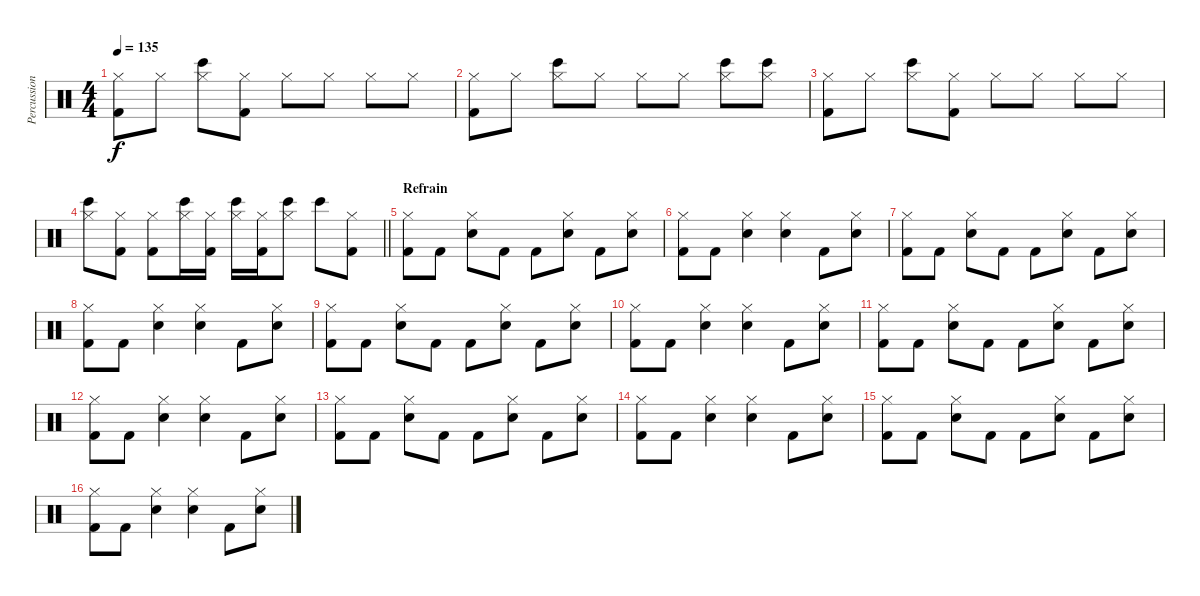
\track ("Percussion" "Percussion") {instrument percussion}
\staff {score}
\articulation defaults
\ts (4 4)
\tempo 135
\clef neutral
\ks c
("Hi-Hat (closed)" "Kick (hit) 2").8{dy f} "Hi-Hat (closed)".8 ("Hi-Hat (closed)" "Bongo High (hit)").8 ("Hi-Hat (closed)" "Kick (hit) 2").8 "Hi-Hat (closed)".8 "Hi-Hat (closed)".8 "Hi-Hat (closed)".8 "Hi-Hat (closed)".8 |
("Hi-Hat (closed)" "Kick (hit) 2").8 "Hi-Hat (closed)".8 ("Hi-Hat (closed)" "Bongo High (hit)").8 "Hi-Hat (closed)".8 "Hi-Hat (closed)".8 "Hi-Hat (closed)".8 ("Hi-Hat (closed)" "Bongo High (hit)").8 ("Hi-Hat (closed)" "Bongo High (hit)").8 |
("Hi-Hat (closed)" "Kick (hit) 2").8 "Hi-Hat (closed)".8 ("Hi-Hat (closed)" "Bongo High (hit)").8 ("Hi-Hat (closed)" "Kick (hit) 2").8 "Hi-Hat (closed)".8 "Hi-Hat (closed)".8 "Hi-Hat (closed)".8 "Hi-Hat (closed)".8 |
\barLineRight lightlight
("Hi-Hat (closed)" "Bongo High (hit)").8 ("Hi-Hat (closed)" "Kick (hit) 2").8 ("Hi-Hat (closed)" "Kick (hit) 2").8 ("Hi-Hat (closed)" "Bongo High (hit)").16 ("Hi-Hat (closed)" "Kick (hit) 2").16 ("Hi-Hat (closed)" "Bongo High (hit)").16 ("Hi-Hat (closed)" "Kick (hit) 2").16 ("Hi-Hat (closed)" "Bongo High (hit)").8 "Bongo High (hit)".8 ("Hi-Hat (closed)" "Kick (hit) 2").8 |
\section ("" "Refrain")
("Hi-Hat (closed)" "Kick (hit) 2").8 "Kick (hit) 2".8 ("Hi-Hat (closed)" "Snare (hit) 2").8 "Kick (hit) 2".8 "Kick (hit) 2".8 ("Hi-Hat (closed)" "Snare (hit) 2").8 "Kick (hit) 2".8 ("Hi-Hat (closed)" "Snare (hit) 2").8 |
("Hi-Hat (closed)" "Kick (hit) 2").8 "Kick (hit) 2".8 ("Hi-Hat (closed)" "Snare (hit) 2").4 ("Hi-Hat (closed)" "Snare (hit) 2").4 "Kick (hit) 2".8 ("Hi-Hat (closed)" "Snare (hit) 2").8 |
("Hi-Hat (closed)" "Kick (hit) 2").8 "Kick (hit) 2".8 ("Hi-Hat (closed)" "Snare (hit) 2").8 "Kick (hit) 2".8 "Kick (hit) 2".8 ("Hi-Hat (closed)" "Snare (hit) 2").8 "Kick (hit) 2".8 ("Hi-Hat (closed)" "Snare (hit) 2").8 |
("Hi-Hat (closed)" "Kick (hit) 2").8 "Kick (hit) 2".8 ("Hi-Hat (closed)" "Snare (hit) 2").4 ("Hi-Hat (closed)" "Snare (hit) 2").4 "Kick (hit) 2".8 ("Hi-Hat (closed)" "Snare (hit) 2").8 |
("Hi-Hat (closed)" "Kick (hit) 2").8 "Kick (hit) 2".8 ("Hi-Hat (closed)" "Snare (hit) 2").8 "Kick (hit) 2".8 "Kick (hit) 2".8 ("Hi-Hat (closed)" "Snare (hit) 2").8 "Kick (hit) 2".8 ("Hi-Hat (closed)" "Snare (hit) 2").8 |
("Hi-Hat (closed)" "Kick (hit) 2").8 "Kick (hit) 2".8 ("Hi-Hat (closed)" "Snare (hit) 2").4 ("Hi-Hat (closed)" "Snare (hit) 2").4 "Kick (hit) 2".8 ("Hi-Hat (closed)" "Snare (hit) 2").8 |
("Hi-Hat (closed)" "Kick (hit) 2").8 "Kick (hit) 2".8 ("Hi-Hat (closed)" "Snare (hit) 2").8 "Kick (hit) 2".8 "Kick (hit) 2".8 ("Hi-Hat (closed)" "Snare (hit) 2").8 "Kick (hit) 2".8 ("Hi-Hat (closed)" "Snare (hit) 2").8 |
("Hi-Hat (closed)" "Kick (hit) 2").8 "Kick (hit) 2".8 ("Hi-Hat (closed)" "Snare (hit) 2").4 ("Hi-Hat (closed)" "Snare (hit) 2").4 "Kick (hit) 2".8 ("Hi-Hat (closed)" "Snare (hit) 2").8 |
("Hi-Hat (closed)" "Kick (hit) 2").8 "Kick (hit) 2".8 ("Hi-Hat (closed)" "Snare (hit) 2").8 "Kick (hit) 2".8 "Kick (hit) 2".8 ("Hi-Hat (closed)" "Snare (hit) 2").8 "Kick (hit) 2".8 ("Hi-Hat (closed)" "Snare (hit) 2").8 |
("Hi-Hat (closed)" "Kick (hit) 2").8 "Kick (hit) 2".8 ("Hi-Hat (closed)" "Snare (hit) 2").4 ("Hi-Hat (closed)" "Snare (hit) 2").4 "Kick (hit) 2".8 ("Hi-Hat (closed)" "Snare (hit) 2").8 |
("Hi-Hat (closed)" "Kick (hit) 2").8 "Kick (hit) 2".8 ("Hi-Hat (closed)" "Snare (hit) 2").8 "Kick (hit) 2".8 "Kick (hit) 2".8 ("Hi-Hat (closed)" "Snare (hit) 2").8 "Kick (hit) 2".8 ("Hi-Hat (closed)" "Snare (hit) 2").8 |
("Hi-Hat (closed)" "Kick (hit) 2").8 "Kick (hit) 2".8 ("Hi-Hat (closed)" "Snare (hit) 2").4 ("Hi-Hat (closed)" "Snare (hit) 2").4 "Kick (hit) 2".8 ("Hi-Hat (closed)" "Snare (hit) 2").8
